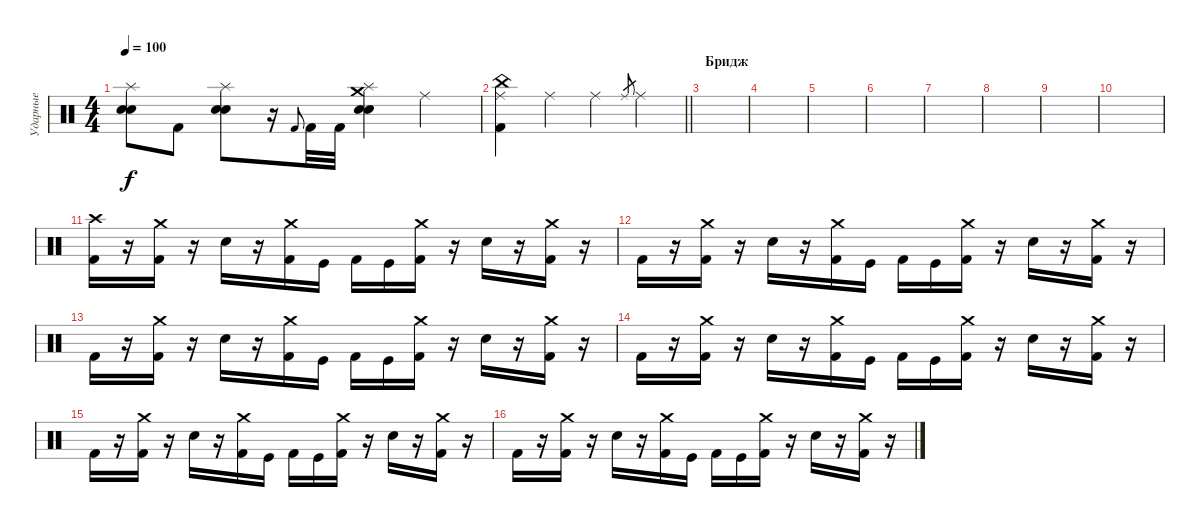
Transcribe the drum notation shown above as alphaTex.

\track ("Ударные" "Ударные") {instrument percussion}
\staff {score}
\articulation defaults
\ts (4 4)
\tempo 100
\clef neutral
\ks c
("Electric Snare (hit)" "Electric Snare (hit)" "Splash (hit)").8{dy f} "Kick (hit) 2".8 ("Electric Snare (hit)" "Electric Snare (hit)" "Splash (hit)").8 r.16 "Kick (hit) 2".8{gr onbeat} "Kick (hit) 2".32 "Kick (hit) 2".32 ("Crash medium (hit)" "Electric Snare (hit)" "Electric Snare (hit)" "Splash (hit)").4 "Ride (middle)".4 |
\barLineRight lightlight
("China (hit)" "Kick (hit) 2" "Ride (middle)").4 "Ride (middle)".4 "Ride (middle)".4 "Ride (middle)".8{gr} "Ride (middle)".4 |
\section ("" "Бридж")
|
|
|
|
|
|
|
|
("Crash high (hit)" "Kick (hit) 2").16 r.16 ("Crash medium (hit)" "Kick (hit) 2").16 r.16 "Electric Snare (hit)".16 r.16 ("Crash medium (hit)" "Kick (hit) 2").16 "Kick (hit)".16 "Kick (hit) 2".16 "Kick (hit)".16 ("Crash medium (hit)" "Kick (hit) 2").16 r.16 "Electric Snare (hit)".16 r.16 ("Crash medium (hit)" "Kick (hit) 2").16 r.16 |
"Kick (hit) 2".16 r.16 ("Crash medium (hit)" "Kick (hit) 2").16 r.16 "Electric Snare (hit)".16 r.16 ("Crash medium (hit)" "Kick (hit) 2").16 "Kick (hit)".16 "Kick (hit) 2".16 "Kick (hit)".16 ("Crash medium (hit)" "Kick (hit) 2").16 r.16 "Electric Snare (hit)".16 r.16 ("Crash medium (hit)" "Kick (hit) 2").16 r.16 |
"Kick (hit) 2".16 r.16 ("Crash medium (hit)" "Kick (hit) 2").16 r.16 "Electric Snare (hit)".16 r.16 ("Crash medium (hit)" "Kick (hit) 2").16 "Kick (hit)".16 "Kick (hit) 2".16 "Kick (hit)".16 ("Crash medium (hit)" "Kick (hit) 2").16 r.16 "Electric Snare (hit)".16 r.16 ("Crash medium (hit)" "Kick (hit) 2").16 r.16 |
"Kick (hit) 2".16 r.16 ("Crash medium (hit)" "Kick (hit) 2").16 r.16 "Electric Snare (hit)".16 r.16 ("Crash medium (hit)" "Kick (hit) 2").16 "Kick (hit)".16 "Kick (hit) 2".16 "Kick (hit)".16 ("Crash medium (hit)" "Kick (hit) 2").16 r.16 "Electric Snare (hit)".16 r.16 ("Crash medium (hit)" "Kick (hit) 2").16 r.16 |
"Kick (hit) 2".16 r.16 ("Crash medium (hit)" "Kick (hit) 2").16 r.16 "Electric Snare (hit)".16 r.16 ("Crash medium (hit)" "Kick (hit) 2").16 "Kick (hit)".16 "Kick (hit) 2".16 "Kick (hit)".16 ("Crash medium (hit)" "Kick (hit) 2").16 r.16 "Electric Snare (hit)".16 r.16 ("Crash medium (hit)" "Kick (hit) 2").16 r.16 |
"Kick (hit) 2".16 r.16 ("Crash medium (hit)" "Kick (hit) 2").16 r.16 "Electric Snare (hit)".16 r.16 ("Crash medium (hit)" "Kick (hit) 2").16 "Kick (hit)".16 "Kick (hit) 2".16 "Kick (hit)".16 ("Crash medium (hit)" "Kick (hit) 2").16 r.16 "Electric Snare (hit)".16 r.16 ("Crash medium (hit)" "Kick (hit) 2").16 r.16
